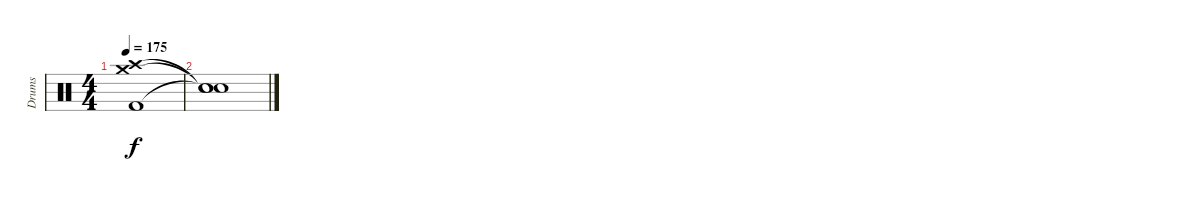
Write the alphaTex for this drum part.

\track ("Drums" "Drums") {instrument percussion}
\staff {score}
\articulation defaults
\ts (4 4)
\tempo 175
\clef neutral
\ks c
("Crash high (hit)" "Crash medium (hit)" "Kick (hit) 2").1{dy f} |
("Snare (hit)"{t} "Snare (hit)"{t} "Snare (hit)"{t}).1
